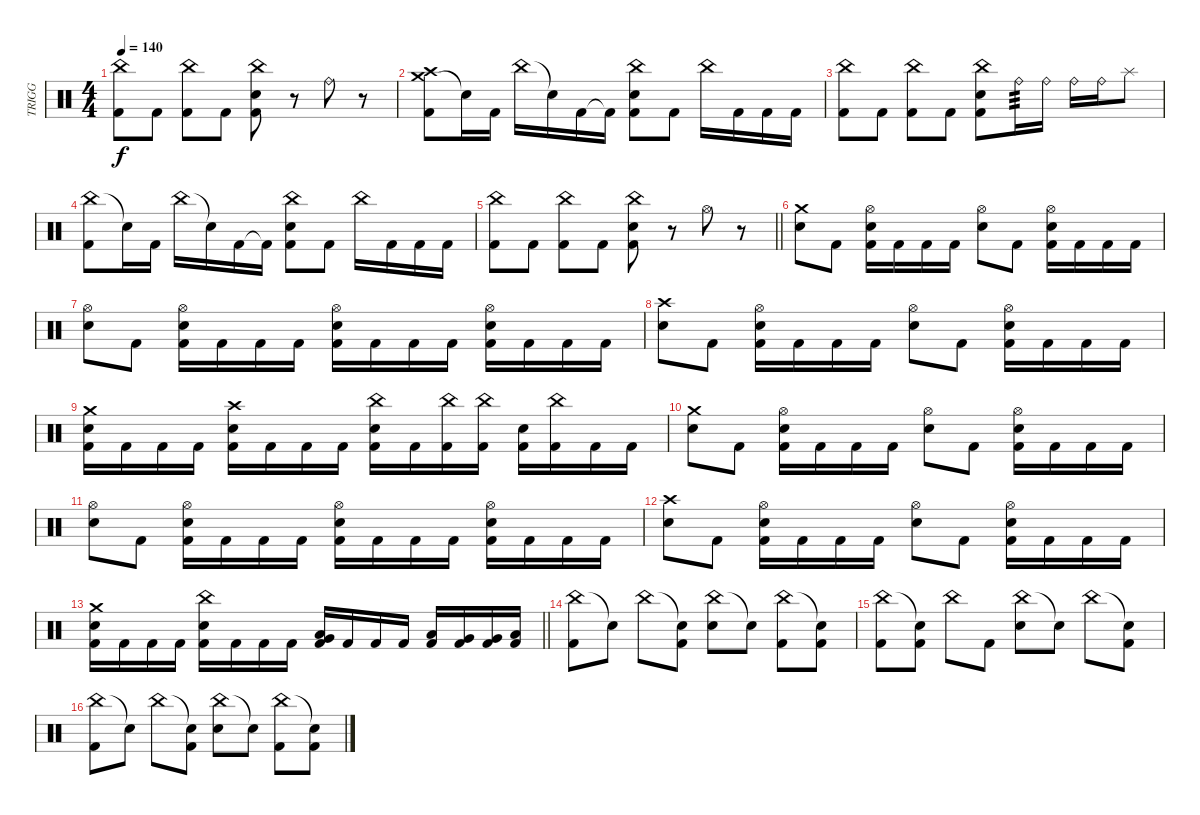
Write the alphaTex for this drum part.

\track ("TRIGG" "TRIGG") {instrument percussion}
\staff {score}
\articulation defaults
\ts (4 4)
\tempo 140
\clef neutral
\ks c
("China (hit)" "Kick (hit) 2").8{dy f} "Kick (hit) 2".8 ("China (hit)" "Kick (hit) 2").8 "Kick (hit) 2".8 ("China (hit)" "Electric Snare (hit)" "Kick (hit) 2").8 r.8 "Ride (bell)".8 r.8 |
("Crash medium (hit)" "Crash high (hit)" "Kick (hit) 2").8 "Snare (hit)"{t}.16 "Kick (hit) 2".16 "China (hit)".16 "Snare (hit)"{t}.16 "Kick (hit) 2".16 "Kick (hit) 2"{t}.16 ("China (hit)" "Electric Snare (hit)" "Kick (hit) 2").8 "Kick (hit) 2".8 "China (hit)".16 "Kick (hit) 2".16 "Kick (hit) 2".16 "Kick (hit) 2".16 |
("China (hit)" "Kick (hit) 2").8 "Kick (hit) 2".8 ("China (hit)" "Kick (hit) 2").8 "Kick (hit) 2".8 ("China (hit)" "Electric Snare (hit)" "Kick (hit) 2").8 "Ride (bell)".16{tp 3} "Ride (bell)".16 "Ride (bell)".16 "Ride (bell)".16 "Splash (hit)".8 |
("China (hit)" "Kick (hit) 2").8 "Snare (hit)"{t}.16 "Kick (hit) 2".16 "China (hit)".16 "Snare (hit)"{t}.16 "Kick (hit) 2".16 "Kick (hit) 2"{t}.16 ("China (hit)" "Electric Snare (hit)" "Kick (hit) 2").8 "Kick (hit) 2".8 "China (hit)".16 "Kick (hit) 2".16 "Kick (hit) 2".16 "Kick (hit) 2".16 |
\barLineRight lightlight
("China (hit)" "Kick (hit) 2").8 "Kick (hit) 2".8 ("China (hit)" "Kick (hit) 2").8 "Kick (hit) 2".8 ("China (hit)" "Electric Snare (hit)" "Kick (hit) 2").8 r.8 "Hi-Hat (open)".8 r.8 |
("Crash medium (hit)" "Electric Snare (hit)").8 "Kick (hit) 2".8 ("Hi-Hat (open)" "Electric Snare (hit)" "Kick (hit) 2").16 "Kick (hit) 2".16 "Kick (hit) 2".16 "Kick (hit) 2".16 ("Hi-Hat (open)" "Electric Snare (hit)").8 "Kick (hit) 2".8 ("Hi-Hat (open)" "Electric Snare (hit)" "Kick (hit) 2").16 "Kick (hit) 2".16 "Kick (hit) 2".16 "Kick (hit) 2".16 |
("Hi-Hat (open)" "Electric Snare (hit)").8 "Kick (hit) 2".8 ("Hi-Hat (open)" "Electric Snare (hit)" "Kick (hit) 2").16 "Kick (hit) 2".16 "Kick (hit) 2".16 "Kick (hit) 2".16 ("Hi-Hat (open)" "Electric Snare (hit)" "Kick (hit) 2").16 "Kick (hit) 2".16 "Kick (hit) 2".16 "Kick (hit) 2".16 ("Hi-Hat (open)" "Electric Snare (hit)" "Kick (hit) 2").16 "Kick (hit) 2".16 "Kick (hit) 2".16 "Kick (hit) 2".16 |
("Crash high (hit)" "Electric Snare (hit)").8 "Kick (hit) 2".8 ("Hi-Hat (open)" "Electric Snare (hit)" "Kick (hit) 2").16 "Kick (hit) 2".16 "Kick (hit) 2".16 "Kick (hit) 2".16 ("Hi-Hat (open)" "Electric Snare (hit)").8 "Kick (hit) 2".8 ("Hi-Hat (open)" "Electric Snare (hit)" "Kick (hit) 2").16 "Kick (hit) 2".16 "Kick (hit) 2".16 "Kick (hit) 2".16 |
("Crash medium (hit)" "Electric Snare (hit)" "Kick (hit) 2").16 "Kick (hit) 2".16 "Kick (hit) 2".16 "Kick (hit) 2".16 ("Crash high (hit)" "Electric Snare (hit)" "Kick (hit) 2").16 "Kick (hit) 2".16 "Kick (hit) 2".16 "Kick (hit) 2".16 ("China (hit)" "Electric Snare (hit)" "Kick (hit) 2").16 "Kick (hit) 2".16 ("China (hit)" "Kick (hit) 2").16 ("China (hit)" "Kick (hit) 2").16 ("Electric Snare (hit)" "Kick (hit) 2").16 ("China (hit)" "Kick (hit) 2").16 "Kick (hit) 2".16 "Kick (hit) 2".16 |
("Crash medium (hit)" "Electric Snare (hit)").8 "Kick (hit) 2".8 ("Hi-Hat (open)" "Electric Snare (hit)" "Kick (hit) 2").16 "Kick (hit) 2".16 "Kick (hit) 2".16 "Kick (hit) 2".16 ("Hi-Hat (open)" "Electric Snare (hit)").8 "Kick (hit) 2".8 ("Hi-Hat (open)" "Electric Snare (hit)" "Kick (hit) 2").16 "Kick (hit) 2".16 "Kick (hit) 2".16 "Kick (hit) 2".16 |
("Hi-Hat (open)" "Electric Snare (hit)").8 "Kick (hit) 2".8 ("Hi-Hat (open)" "Electric Snare (hit)" "Kick (hit) 2").16 "Kick (hit) 2".16 "Kick (hit) 2".16 "Kick (hit) 2".16 ("Hi-Hat (open)" "Electric Snare (hit)" "Kick (hit) 2").16 "Kick (hit) 2".16 "Kick (hit) 2".16 "Kick (hit) 2".16 ("Hi-Hat (open)" "Electric Snare (hit)" "Kick (hit) 2").16 "Kick (hit) 2".16 "Kick (hit) 2".16 "Kick (hit) 2".16 |
("Crash high (hit)" "Electric Snare (hit)").8 "Kick (hit) 2".8 ("Hi-Hat (open)" "Electric Snare (hit)" "Kick (hit) 2").16 "Kick (hit) 2".16 "Kick (hit) 2".16 "Kick (hit) 2".16 ("Hi-Hat (open)" "Electric Snare (hit)").8 "Kick (hit) 2".8 ("Hi-Hat (open)" "Electric Snare (hit)" "Kick (hit) 2").16 "Kick (hit) 2".16 "Kick (hit) 2".16 "Kick (hit) 2".16 |
\barLineRight lightlight
("Crash medium (hit)" "Electric Snare (hit)" "Kick (hit) 2").16 "Kick (hit) 2".16 "Kick (hit) 2".16 "Kick (hit) 2".16 ("China (hit)" "Electric Snare (hit)" "Kick (hit) 2").16 "Kick (hit) 2".16 "Kick (hit) 2".16 "Kick (hit) 2".16 ("Low Tom (hit)" "Very Low Tom (hit)" "Kick (hit) 2").16 "Kick (hit) 2".16 "Kick (hit) 2".16 "Kick (hit) 2".16 ("Low Tom (hit)" "Kick (hit) 2").16 ("Very Low Tom (hit)" "Kick (hit) 2").16 ("Very Low Tom (hit)" "Kick (hit) 2").16 ("Low Floor Tom (hit)" "Kick (hit) 2").16 |
("China (hit)" "Kick (hit) 2").8 "Snare (hit)"{t}.8 "China (hit)".8 ("Snare (hit)"{t} "Kick (hit) 2").8 ("China (hit)" "Electric Snare (hit)").8 "Snare (hit)"{t}.8 ("China (hit)" "Kick (hit) 2").8 ("Snare (hit)"{t} "Kick (hit) 2").8 |
("China (hit)" "Kick (hit) 2").8 ("Snare (hit)"{t} "Kick (hit) 2").8 "China (hit)".8 "Kick (hit) 2".8 ("China (hit)" "Electric Snare (hit)").8 "Snare (hit)"{t}.8 "China (hit)".8 ("Snare (hit)"{t} "Kick (hit) 2").8 |
("China (hit)" "Kick (hit) 2").8 "Snare (hit)"{t}.8 "China (hit)".8 ("Snare (hit)"{t} "Kick (hit) 2").8 ("China (hit)" "Electric Snare (hit)").8 "Snare (hit)"{t}.8 ("China (hit)" "Kick (hit) 2").8 ("Snare (hit)"{t} "Kick (hit) 2").8
